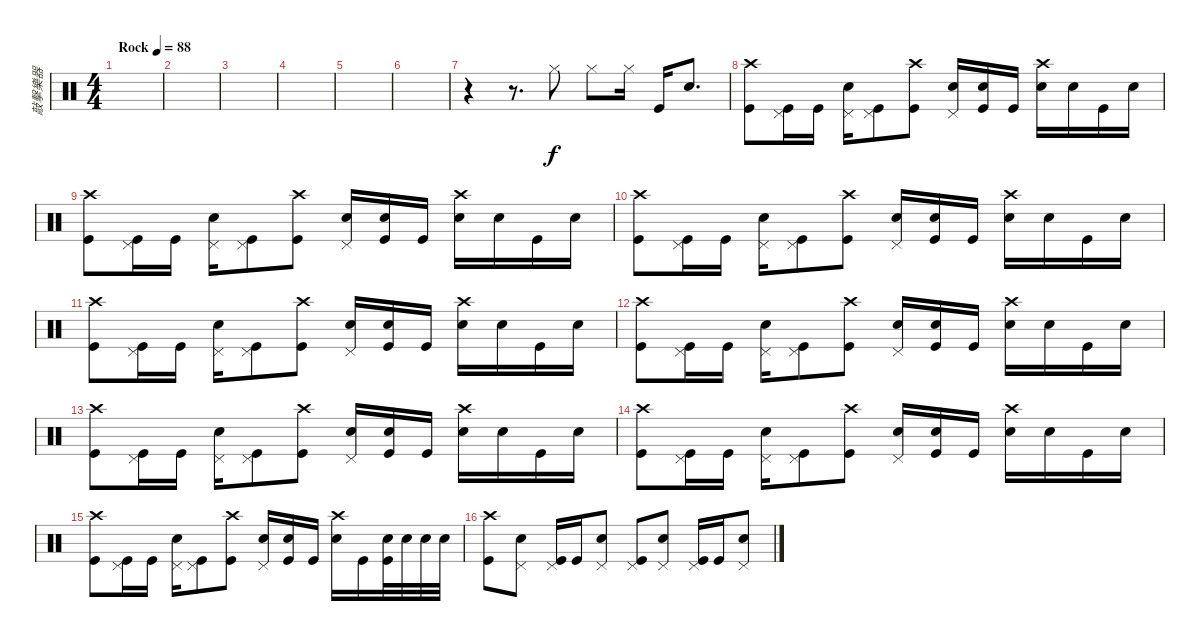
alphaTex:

\track ("敲擊樂器" "敲擊樂器") {instrument percussion}
\staff {score}
\articulation defaults
\ts (4 4)
\tempo (88 "Rock")
\clef neutral
\ks c
|
|
|
|
|
|
r.4 r.8{d} "Hi-Hat (closed)".8 "Hi-Hat (closed)".8 "Hi-Hat (closed)".16 "Kick (hit)".16 "Snare (hit) 2".8{d} |
("Crash high (hit)" "Kick (hit)").8 ("Pedal Hi-Hat (hit)" "Kick (hit)").16 "Kick (hit)".16 ("Pedal Hi-Hat (hit)" "Snare (hit) 2").16 ("Pedal Hi-Hat (hit)" "Kick (hit)").8 ("Crash high (hit)" "Kick (hit)").8 ("Pedal Hi-Hat (hit)" "Snare (hit) 2").16 ("Snare (hit) 2" "Kick (hit)").16 "Kick (hit)".16 ("Crash high (hit)" "Snare (hit) 2").16 "Snare (hit) 2".16 "Kick (hit)".16 "Snare (hit) 2".16 |
("Crash high (hit)" "Kick (hit)").8 ("Pedal Hi-Hat (hit)" "Kick (hit)").16 "Kick (hit)".16 ("Pedal Hi-Hat (hit)" "Snare (hit) 2").16 ("Pedal Hi-Hat (hit)" "Kick (hit)").8 ("Crash high (hit)" "Kick (hit)").8 ("Pedal Hi-Hat (hit)" "Snare (hit) 2").16 ("Snare (hit) 2" "Kick (hit)").16 "Kick (hit)".16 ("Crash high (hit)" "Snare (hit) 2").16 "Snare (hit) 2".16 "Kick (hit)".16 "Snare (hit) 2".16 |
("Crash high (hit)" "Kick (hit)").8 ("Pedal Hi-Hat (hit)" "Kick (hit)").16 "Kick (hit)".16 ("Pedal Hi-Hat (hit)" "Snare (hit) 2").16 ("Pedal Hi-Hat (hit)" "Kick (hit)").8 ("Crash high (hit)" "Kick (hit)").8 ("Pedal Hi-Hat (hit)" "Snare (hit) 2").16 ("Snare (hit) 2" "Kick (hit)").16 "Kick (hit)".16 ("Crash high (hit)" "Snare (hit) 2").16 "Snare (hit) 2".16 "Kick (hit)".16 "Snare (hit) 2".16 |
("Crash high (hit)" "Kick (hit)").8 ("Pedal Hi-Hat (hit)" "Kick (hit)").16 "Kick (hit)".16 ("Pedal Hi-Hat (hit)" "Snare (hit) 2").16 ("Pedal Hi-Hat (hit)" "Kick (hit)").8 ("Crash high (hit)" "Kick (hit)").8 ("Pedal Hi-Hat (hit)" "Snare (hit) 2").16 ("Snare (hit) 2" "Kick (hit)").16 "Kick (hit)".16 ("Crash high (hit)" "Snare (hit) 2").16 "Snare (hit) 2".16 "Kick (hit)".16 "Snare (hit) 2".16 |
("Crash high (hit)" "Kick (hit)").8 ("Pedal Hi-Hat (hit)" "Kick (hit)").16 "Kick (hit)".16 ("Pedal Hi-Hat (hit)" "Snare (hit) 2").16 ("Pedal Hi-Hat (hit)" "Kick (hit)").8 ("Crash high (hit)" "Kick (hit)").8 ("Pedal Hi-Hat (hit)" "Snare (hit) 2").16 ("Snare (hit) 2" "Kick (hit)").16 "Kick (hit)".16 ("Crash high (hit)" "Snare (hit) 2").16 "Snare (hit) 2".16 "Kick (hit)".16 "Snare (hit) 2".16 |
("Crash high (hit)" "Kick (hit)").8 ("Pedal Hi-Hat (hit)" "Kick (hit)").16 "Kick (hit)".16 ("Pedal Hi-Hat (hit)" "Snare (hit) 2").16 ("Pedal Hi-Hat (hit)" "Kick (hit)").8 ("Crash high (hit)" "Kick (hit)").8 ("Pedal Hi-Hat (hit)" "Snare (hit) 2").16 ("Snare (hit) 2" "Kick (hit)").16 "Kick (hit)".16 ("Crash high (hit)" "Snare (hit) 2").16 "Snare (hit) 2".16 "Kick (hit)".16 "Snare (hit) 2".16 |
("Crash high (hit)" "Kick (hit)").8 ("Pedal Hi-Hat (hit)" "Kick (hit)").16 "Kick (hit)".16 ("Pedal Hi-Hat (hit)" "Snare (hit) 2").16 ("Pedal Hi-Hat (hit)" "Kick (hit)").8 ("Crash high (hit)" "Kick (hit)").8 ("Pedal Hi-Hat (hit)" "Snare (hit) 2").16 ("Snare (hit) 2" "Kick (hit)").16 "Kick (hit)".16 ("Crash high (hit)" "Snare (hit) 2").16 "Snare (hit) 2".16 "Kick (hit)".16 "Snare (hit) 2".16 |
("Crash high (hit)" "Kick (hit)").8 ("Pedal Hi-Hat (hit)" "Kick (hit)").16 "Kick (hit)".16 ("Pedal Hi-Hat (hit)" "Snare (hit) 2").16 ("Pedal Hi-Hat (hit)" "Kick (hit)").8 ("Crash high (hit)" "Kick (hit)").8 ("Pedal Hi-Hat (hit)" "Snare (hit) 2").16 ("Snare (hit) 2" "Kick (hit)").16 "Kick (hit)".16 ("Crash high (hit)" "Snare (hit) 2").16 "Kick (hit)".16 ("Snare (hit) 2" "Kick (hit)").32 "Snare (hit) 2".32 "Snare (hit) 2".32 "Snare (hit) 2".32 |
("Crash high (hit)" "Kick (hit)").8 ("Pedal Hi-Hat (hit)" "Snare (hit) 2").8 ("Pedal Hi-Hat (hit)" "Kick (hit)").16 "Kick (hit)".16 ("Pedal Hi-Hat (hit)" "Snare (hit) 2").8 ("Pedal Hi-Hat (hit)" "Kick (hit)").8 ("Pedal Hi-Hat (hit)" "Snare (hit) 2").8 ("Pedal Hi-Hat (hit)" "Kick (hit)").16 "Kick (hit)".16 ("Pedal Hi-Hat (hit)" "Snare (hit) 2").8
